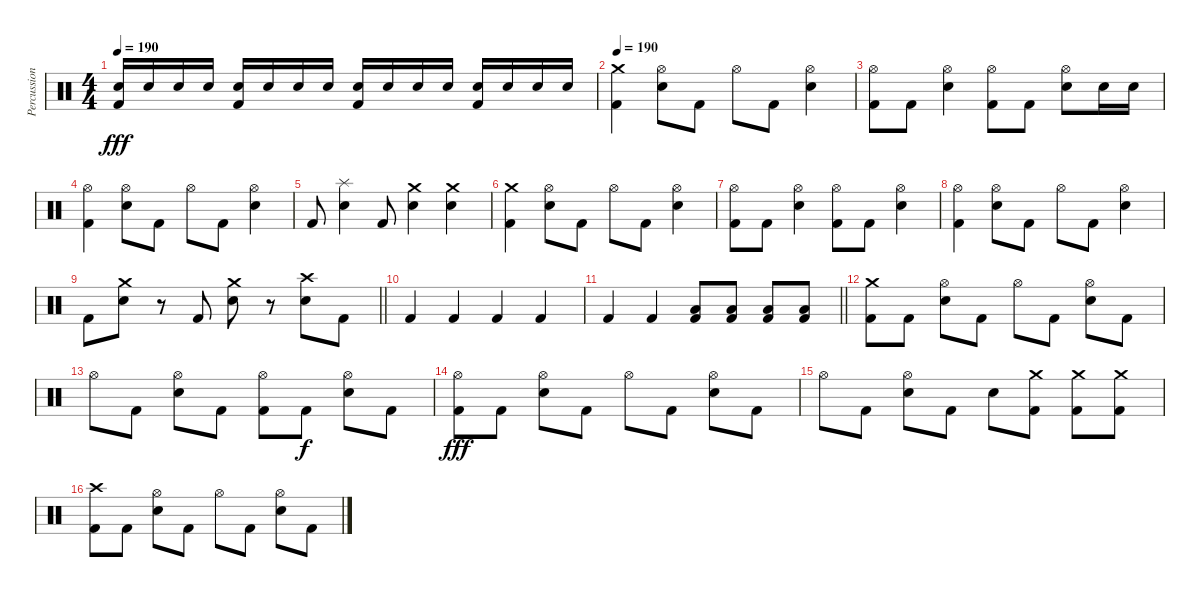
\track ("Percussion" "Percussion") {instrument percussion}
\staff {score}
\articulation defaults
\ts (4 4)
\tempo 190
\clef neutral
\ks c
("Electric Snare (hit)" "Kick (hit) 2").16{dy fff} "Electric Snare (hit)".16 "Electric Snare (hit)".16 "Electric Snare (hit)".16 ("Electric Snare (hit)" "Kick (hit) 2").16 "Electric Snare (hit)".16 "Electric Snare (hit)".16 "Electric Snare (hit)".16 ("Electric Snare (hit)" "Kick (hit) 2").16 "Electric Snare (hit)".16 "Electric Snare (hit)".16 "Electric Snare (hit)".16 ("Electric Snare (hit)" "Kick (hit) 2").16 "Electric Snare (hit)".16 "Electric Snare (hit)".16 "Electric Snare (hit)".16 |
\tempo 190
("Crash medium (hit)" "Kick (hit) 2").4 ("Hi-Hat (open)" "Electric Snare (hit)").8 "Kick (hit) 2".8 "Hi-Hat (open)".8 "Kick (hit) 2".8 ("Hi-Hat (open)" "Electric Snare (hit)").4 |
("Hi-Hat (open)" "Kick (hit) 2").8 "Kick (hit) 2".8 ("Hi-Hat (open)" "Electric Snare (hit)").4 ("Hi-Hat (open)" "Kick (hit) 2").8 "Kick (hit) 2".8 ("Hi-Hat (open)" "Electric Snare (hit)").8 "Electric Snare (hit)".16 "Electric Snare (hit)".16 |
("Hi-Hat (open)" "Kick (hit) 2").4 ("Hi-Hat (open)" "Electric Snare (hit)").8 "Kick (hit) 2".8 "Hi-Hat (open)".8 "Kick (hit) 2".8 ("Hi-Hat (open)" "Electric Snare (hit)").4 |
"Kick (hit) 2".8 ("Splash (hit)" "Electric Snare (hit)").4 "Kick (hit) 2".8 ("Crash medium (hit)" "Electric Snare (hit)").4 ("Crash medium (hit)" "Electric Snare (hit)").4 |
("Crash medium (hit)" "Kick (hit) 2").4 ("Hi-Hat (open)" "Electric Snare (hit)").8 "Kick (hit) 2".8 "Hi-Hat (open)".8 "Kick (hit) 2".8 ("Hi-Hat (open)" "Electric Snare (hit)").4 |
("Hi-Hat (open)" "Kick (hit) 2").8 "Kick (hit) 2".8 ("Hi-Hat (open)" "Electric Snare (hit)").4 ("Hi-Hat (open)" "Kick (hit) 2").8 "Kick (hit) 2".8 ("Hi-Hat (open)" "Electric Snare (hit)").4 |
("Hi-Hat (open)" "Kick (hit) 2").4 ("Hi-Hat (open)" "Electric Snare (hit)").8 "Kick (hit) 2".8 "Hi-Hat (open)".8 "Kick (hit) 2".8 ("Hi-Hat (open)" "Electric Snare (hit)").4 |
\barLineRight lightlight "Kick (hit) 2".8
("Crash medium (hit)" "Electric Snare (hit)").8 r.8 "Kick (hit) 2".8 ("Crash medium (hit)" "Electric Snare (hit)").8 r.8 ("Crash high (hit)" "Electric Snare (hit)").8 "Kick (hit) 2".8 |
"Kick (hit) 2".4 "Kick (hit) 2".4 "Kick (hit) 2".4 "Kick (hit) 2".4 |
\barLineRight lightlight "Kick (hit) 2".4 "Kick (hit) 2".4
("Low Floor Tom (hit)" "Kick (hit) 2").8 ("Low Floor Tom (hit)" "Kick (hit) 2").8 ("Low Floor Tom (hit)" "Kick (hit) 2").8 ("Low Floor Tom (hit)" "Kick (hit) 2").8 |
("Crash medium (hit)" "Kick (hit) 2").8 "Kick (hit) 2".8 ("Hi-Hat (open)" "Electric Snare (hit)").8 "Kick (hit) 2".8 "Hi-Hat (open)".8 "Kick (hit) 2".8 ("Hi-Hat (open)" "Electric Snare (hit)").8 "Kick (hit) 2".8 |
"Hi-Hat (open)".8 "Kick (hit) 2".8 ("Hi-Hat (open)" "Electric Snare (hit)").8 "Kick (hit) 2".8 ("Hi-Hat (open)" "Kick (hit) 2").8 "Kick (hit) 2".8{dy f} ("Hi-Hat (open)" "Electric Snare (hit)").8 "Kick (hit) 2".8 |
("Hi-Hat (open)" "Kick (hit) 2").8{dy fff} "Kick (hit) 2".8 ("Hi-Hat (open)" "Electric Snare (hit)").8 "Kick (hit) 2".8 "Hi-Hat (open)".8 "Kick (hit) 2".8 ("Hi-Hat (open)" "Electric Snare (hit)").8 "Kick (hit) 2".8 |
"Hi-Hat (open)".8 "Kick (hit) 2".8 ("Hi-Hat (open)" "Electric Snare (hit)").8 "Kick (hit) 2".8 "Electric Snare (hit)".8 ("Crash medium (hit)" "Kick (hit) 2").8 ("Crash medium (hit)" "Kick (hit) 2").8 ("Crash medium (hit)" "Kick (hit) 2").8 |
("Crash high (hit)" "Kick (hit) 2").8 "Kick (hit) 2".8 ("Hi-Hat (open)" "Electric Snare (hit)").8 "Kick (hit) 2".8 "Hi-Hat (open)".8 "Kick (hit) 2".8 ("Hi-Hat (open)" "Electric Snare (hit)").8 "Kick (hit) 2".8
